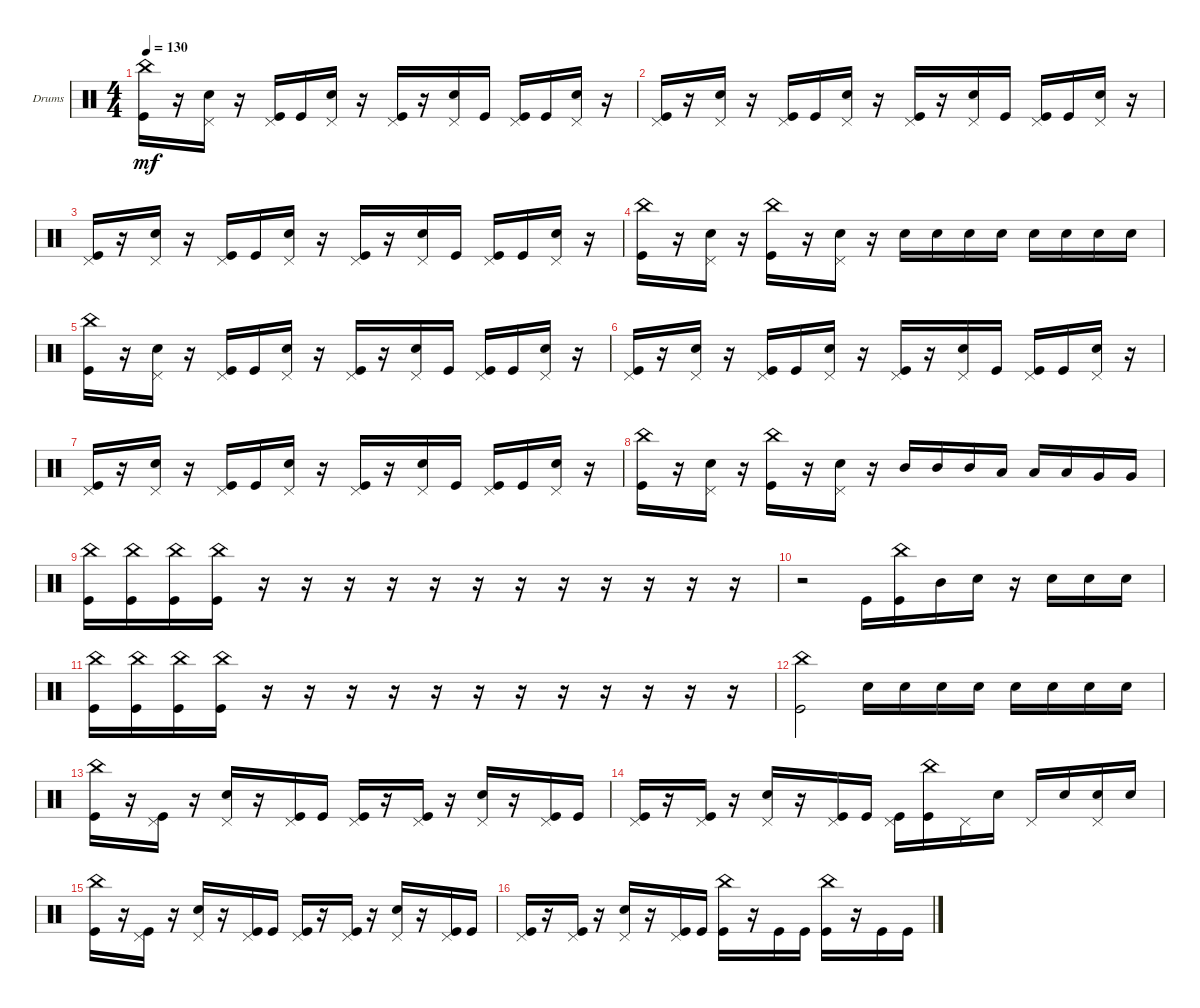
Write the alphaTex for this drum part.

\defaultSystemsLayout 4
\bracketExtendMode groupsimilarinstruments
\firstSystemTrackNameOrientation horizontal
\otherSystemsTrackNameOrientation horizontal
\track ("Drumkit" "Drums") {instrument percussion}
\staff {score}
\articulation defaults
\ts (4 4)
\tempo 130
\clef neutral
\ks c
("Kick (hit)" "China (hit)").16{dy mf} r.16 ("Snare (hit) 2" "Pedal Hi-Hat (hit)").16 r.16 ("Kick (hit)" "Pedal Hi-Hat (hit)").16 "Kick (hit)".16 ("Snare (hit) 2" "Pedal Hi-Hat (hit)").16 r.16 ("Kick (hit)" "Pedal Hi-Hat (hit)").16 r.16 ("Snare (hit) 2" "Pedal Hi-Hat (hit)").16 "Kick (hit)".16 ("Kick (hit)" "Pedal Hi-Hat (hit)").16 "Kick (hit)".16 ("Snare (hit) 2" "Pedal Hi-Hat (hit)").16 r.16 |
("Kick (hit)" "Pedal Hi-Hat (hit)").16 r.16 ("Snare (hit) 2" "Pedal Hi-Hat (hit)").16 r.16 ("Kick (hit)" "Pedal Hi-Hat (hit)").16 "Kick (hit)".16 ("Snare (hit) 2" "Pedal Hi-Hat (hit)").16 r.16 ("Kick (hit)" "Pedal Hi-Hat (hit)").16 r.16 ("Snare (hit) 2" "Pedal Hi-Hat (hit)").16 "Kick (hit)".16 ("Kick (hit)" "Pedal Hi-Hat (hit)").16 "Kick (hit)".16 ("Snare (hit) 2" "Pedal Hi-Hat (hit)").16 r.16 |
("Kick (hit)" "Pedal Hi-Hat (hit)").16 r.16 ("Snare (hit) 2" "Pedal Hi-Hat (hit)").16 r.16 ("Kick (hit)" "Pedal Hi-Hat (hit)").16 "Kick (hit)".16 ("Snare (hit) 2" "Pedal Hi-Hat (hit)").16 r.16 ("Kick (hit)" "Pedal Hi-Hat (hit)").16 r.16 ("Snare (hit) 2" "Pedal Hi-Hat (hit)").16 "Kick (hit)".16 ("Kick (hit)" "Pedal Hi-Hat (hit)").16 "Kick (hit)".16 ("Snare (hit) 2" "Pedal Hi-Hat (hit)").16 r.16 |
("Kick (hit)" "China (hit)").16 r.16 ("Pedal Hi-Hat (hit)" "Snare (hit) 2").16 r.16 ("Kick (hit)" "China (hit)").16 r.16 ("Pedal Hi-Hat (hit)" "Snare (hit) 2").16 r.16 "Snare (hit) 2".16 "Snare (hit) 2".16 "Snare (hit) 2".16 "Snare (hit) 2".16 "Snare (hit) 2".16 "Snare (hit) 2".16 "Snare (hit) 2".16 "Snare (hit) 2".16 |
("Kick (hit)" "China (hit)").16 r.16 ("Snare (hit) 2" "Pedal Hi-Hat (hit)").16 r.16 ("Kick (hit)" "Pedal Hi-Hat (hit)").16 "Kick (hit)".16 ("Snare (hit) 2" "Pedal Hi-Hat (hit)").16 r.16 ("Kick (hit)" "Pedal Hi-Hat (hit)").16 r.16 ("Snare (hit) 2" "Pedal Hi-Hat (hit)").16 "Kick (hit)".16 ("Kick (hit)" "Pedal Hi-Hat (hit)").16 "Kick (hit)".16 ("Snare (hit) 2" "Pedal Hi-Hat (hit)").16 r.16 |
("Kick (hit)" "Pedal Hi-Hat (hit)").16 r.16 ("Snare (hit) 2" "Pedal Hi-Hat (hit)").16 r.16 ("Kick (hit)" "Pedal Hi-Hat (hit)").16 "Kick (hit)".16 ("Snare (hit) 2" "Pedal Hi-Hat (hit)").16 r.16 ("Kick (hit)" "Pedal Hi-Hat (hit)").16 r.16 ("Snare (hit) 2" "Pedal Hi-Hat (hit)").16 "Kick (hit)".16 ("Kick (hit)" "Pedal Hi-Hat (hit)").16 "Kick (hit)".16 ("Snare (hit) 2" "Pedal Hi-Hat (hit)").16 r.16 |
("Kick (hit)" "Pedal Hi-Hat (hit)").16 r.16 ("Snare (hit) 2" "Pedal Hi-Hat (hit)").16 r.16 ("Kick (hit)" "Pedal Hi-Hat (hit)").16 "Kick (hit)".16 ("Snare (hit) 2" "Pedal Hi-Hat (hit)").16 r.16 ("Kick (hit)" "Pedal Hi-Hat (hit)").16 r.16 ("Snare (hit) 2" "Pedal Hi-Hat (hit)").16 "Kick (hit)".16 ("Kick (hit)" "Pedal Hi-Hat (hit)").16 "Kick (hit)".16 ("Snare (hit) 2" "Pedal Hi-Hat (hit)").16 r.16 |
("Kick (hit)" "China (hit)").16 r.16 ("Pedal Hi-Hat (hit)" "Snare (hit) 2").16 r.16 ("Kick (hit)" "China (hit)").16 r.16 ("Pedal Hi-Hat (hit)" "Snare (hit) 2").16 r.16 "Mid Tom (hit)".16 "Mid Tom (hit)".16 "Mid Tom (hit)".16 "Low Tom (hit)".16 "Low Tom (hit)".16 "Low Tom (hit)".16 "Very Low Tom (hit)".16 "Very Low Tom (hit)".16 |
("Kick (hit)" "China (hit)").16 ("Kick (hit)" "China (hit)").16 ("Kick (hit)" "China (hit)").16 ("Kick (hit)" "China (hit)").16 r.16 r.16 r.16 r.16 r.16 r.16 r.16 r.16 r.16 r.16 r.16 r.16 |
r.2 "Kick (hit)".16 ("Kick (hit)" "China (hit)").16 "Mid Tom (hit)".16 "Snare (hit) 2".16 r.16 "Snare (hit) 2".16 "Snare (hit) 2".16 "Snare (hit) 2".16 |
("Kick (hit)" "China (hit)").16 ("Kick (hit)" "China (hit)").16 ("Kick (hit)" "China (hit)").16 ("Kick (hit)" "China (hit)").16 r.16 r.16 r.16 r.16 r.16 r.16 r.16 r.16 r.16 r.16 r.16 r.16 |
("Kick (hit)" "China (hit)").2 "Snare (hit) 2".16 "Snare (hit) 2".16 "Snare (hit) 2".16 "Snare (hit) 2".16 "Snare (hit) 2".16 "Snare (hit) 2".16 "Snare (hit) 2".16 "Snare (hit) 2".16 |
("Kick (hit)" "China (hit)").16 r.16 ("Kick (hit)" "Pedal Hi-Hat (hit)").16 r.16 ("Snare (hit) 2" "Pedal Hi-Hat (hit)").16 r.16 ("Kick (hit)" "Pedal Hi-Hat (hit)").16 "Kick (hit)".16 ("Kick (hit)" "Pedal Hi-Hat (hit)").16 r.16 ("Kick (hit)" "Pedal Hi-Hat (hit)").16 r.16 ("Snare (hit) 2" "Pedal Hi-Hat (hit)").16 r.16 ("Kick (hit)" "Pedal Hi-Hat (hit)").16 "Kick (hit)".16 |
("Kick (hit)" "Pedal Hi-Hat (hit)").16 r.16 ("Kick (hit)" "Pedal Hi-Hat (hit)").16 r.16 ("Snare (hit) 2" "Pedal Hi-Hat (hit)").16 r.16 ("Kick (hit)" "Pedal Hi-Hat (hit)").16 "Kick (hit)".16 ("Kick (hit)" "Pedal Hi-Hat (hit)").16 ("Kick (hit)" "China (hit)").16 "Pedal Hi-Hat (hit)".16 "Snare (hit) 2".16 "Pedal Hi-Hat (hit)".16 "Snare (hit) 2".16 ("Snare (hit) 2" "Pedal Hi-Hat (hit)").16 "Snare (hit) 2".16 |
("Kick (hit)" "China (hit)").16 r.16 ("Kick (hit)" "Pedal Hi-Hat (hit)").16 r.16 ("Snare (hit) 2" "Pedal Hi-Hat (hit)").16 r.16 ("Kick (hit)" "Pedal Hi-Hat (hit)").16 "Kick (hit)".16 ("Kick (hit)" "Pedal Hi-Hat (hit)").16 r.16 ("Kick (hit)" "Pedal Hi-Hat (hit)").16 r.16 ("Snare (hit) 2" "Pedal Hi-Hat (hit)").16 r.16 ("Kick (hit)" "Pedal Hi-Hat (hit)").16 "Kick (hit)".16 |
("Kick (hit)" "Pedal Hi-Hat (hit)").16 r.16 ("Kick (hit)" "Pedal Hi-Hat (hit)").16 r.16 ("Snare (hit) 2" "Pedal Hi-Hat (hit)").16 r.16 ("Kick (hit)" "Pedal Hi-Hat (hit)").16 "Kick (hit)".16 ("Kick (hit)" "China (hit)").16 r.16 "Kick (hit)".16 "Kick (hit)".16 ("Kick (hit)" "China (hit)").16 r.16 "Kick (hit)".16 "Kick (hit)".16
